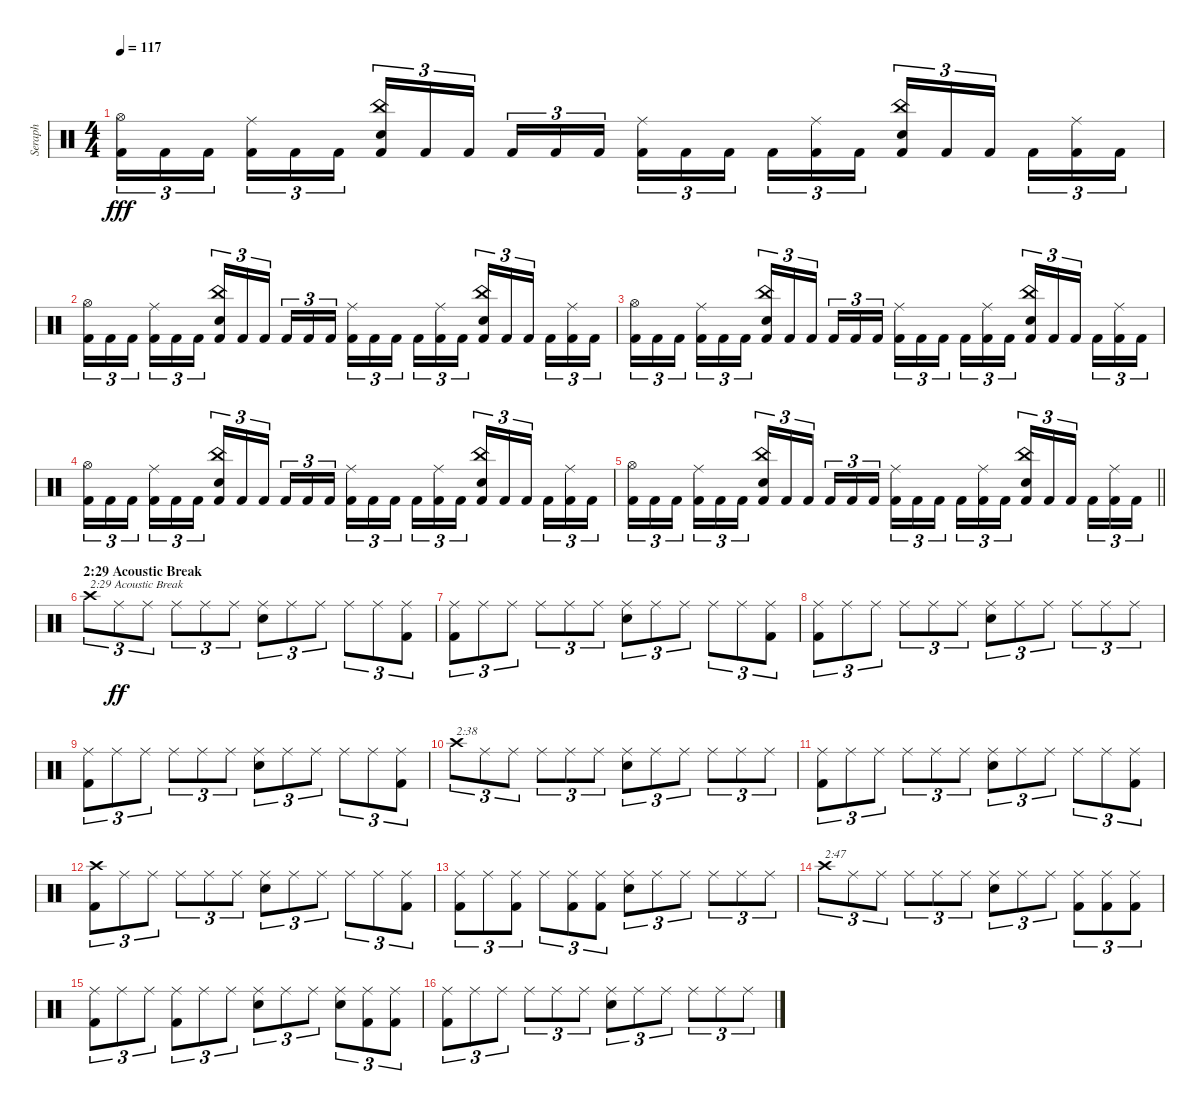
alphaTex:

\track ("Seraph" "Seraph") {instrument percussion}
\staff {score}
\articulation defaults
\ts (4 4)
\tempo 117
\clef neutral
\ks c
("Hi-Hat (open)" "Kick (hit) 2").16{tu (3 2) dy fff} "Kick (hit) 2".16{tu (3 2)} "Kick (hit) 2".16{tu (3 2) beam splitsecondary} ("Ride (middle)" "Kick (hit) 2").16{tu (3 2)} "Kick (hit) 2".16{tu (3 2)} "Kick (hit) 2".16{tu (3 2)} ("China (hit)" "Electric Snare (hit)" "Kick (hit) 2").16{tu (3 2)} "Kick (hit) 2".16{tu (3 2)} "Kick (hit) 2".16{tu (3 2) beam splitsecondary} "Kick (hit) 2".16{tu (3 2)} "Kick (hit) 2".16{tu (3 2)} "Kick (hit) 2".16{tu (3 2)} ("Ride (middle)" "Kick (hit) 2").16{tu (3 2)} "Kick (hit) 2".16{tu (3 2)} "Kick (hit) 2".16{tu (3 2) beam splitsecondary} "Kick (hit) 2".16{tu (3 2)} ("Ride (middle)" "Kick (hit) 2").16{tu (3 2)} "Kick (hit) 2".16{tu (3 2)} ("China (hit)" "Electric Snare (hit)" "Kick (hit) 2").16{tu (3 2)} "Kick (hit) 2".16{tu (3 2)} "Kick (hit) 2".16{tu (3 2) beam splitsecondary} "Kick (hit) 2".16{tu (3 2)} ("Ride (middle)" "Kick (hit) 2").16{tu (3 2)} "Kick (hit) 2".16{tu (3 2)} |
("Hi-Hat (open)" "Kick (hit) 2").16{tu (3 2)} "Kick (hit) 2".16{tu (3 2)} "Kick (hit) 2".16{tu (3 2) beam splitsecondary} ("Ride (middle)" "Kick (hit) 2").16{tu (3 2)} "Kick (hit) 2".16{tu (3 2)} "Kick (hit) 2".16{tu (3 2)} ("China (hit)" "Electric Snare (hit)" "Kick (hit) 2").16{tu (3 2)} "Kick (hit) 2".16{tu (3 2)} "Kick (hit) 2".16{tu (3 2) beam splitsecondary} "Kick (hit) 2".16{tu (3 2)} "Kick (hit) 2".16{tu (3 2)} "Kick (hit) 2".16{tu (3 2)} ("Ride (middle)" "Kick (hit) 2").16{tu (3 2)} "Kick (hit) 2".16{tu (3 2)} "Kick (hit) 2".16{tu (3 2) beam splitsecondary} "Kick (hit) 2".16{tu (3 2)} ("Ride (middle)" "Kick (hit) 2").16{tu (3 2)} "Kick (hit) 2".16{tu (3 2)} ("China (hit)" "Electric Snare (hit)" "Kick (hit) 2").16{tu (3 2)} "Kick (hit) 2".16{tu (3 2)} "Kick (hit) 2".16{tu (3 2) beam splitsecondary} "Kick (hit) 2".16{tu (3 2)} ("Ride (middle)" "Kick (hit) 2").16{tu (3 2)} "Kick (hit) 2".16{tu (3 2)} |
("Hi-Hat (open)" "Kick (hit) 2").16{tu (3 2)} "Kick (hit) 2".16{tu (3 2)} "Kick (hit) 2".16{tu (3 2) beam splitsecondary} ("Ride (middle)" "Kick (hit) 2").16{tu (3 2)} "Kick (hit) 2".16{tu (3 2)} "Kick (hit) 2".16{tu (3 2)} ("China (hit)" "Electric Snare (hit)" "Kick (hit) 2").16{tu (3 2)} "Kick (hit) 2".16{tu (3 2)} "Kick (hit) 2".16{tu (3 2) beam splitsecondary} "Kick (hit) 2".16{tu (3 2)} "Kick (hit) 2".16{tu (3 2)} "Kick (hit) 2".16{tu (3 2)} ("Ride (middle)" "Kick (hit) 2").16{tu (3 2)} "Kick (hit) 2".16{tu (3 2)} "Kick (hit) 2".16{tu (3 2) beam splitsecondary} "Kick (hit) 2".16{tu (3 2)} ("Ride (middle)" "Kick (hit) 2").16{tu (3 2)} "Kick (hit) 2".16{tu (3 2)} ("China (hit)" "Electric Snare (hit)" "Kick (hit) 2").16{tu (3 2)} "Kick (hit) 2".16{tu (3 2)} "Kick (hit) 2".16{tu (3 2) beam splitsecondary} "Kick (hit) 2".16{tu (3 2)} ("Ride (middle)" "Kick (hit) 2").16{tu (3 2)} "Kick (hit) 2".16{tu (3 2)} |
("Hi-Hat (open)" "Kick (hit) 2").16{tu (3 2)} "Kick (hit) 2".16{tu (3 2)} "Kick (hit) 2".16{tu (3 2) beam splitsecondary} ("Ride (middle)" "Kick (hit) 2").16{tu (3 2)} "Kick (hit) 2".16{tu (3 2)} "Kick (hit) 2".16{tu (3 2)} ("China (hit)" "Electric Snare (hit)" "Kick (hit) 2").16{tu (3 2)} "Kick (hit) 2".16{tu (3 2)} "Kick (hit) 2".16{tu (3 2) beam splitsecondary} "Kick (hit) 2".16{tu (3 2)} "Kick (hit) 2".16{tu (3 2)} "Kick (hit) 2".16{tu (3 2)} ("Ride (middle)" "Kick (hit) 2").16{tu (3 2)} "Kick (hit) 2".16{tu (3 2)} "Kick (hit) 2".16{tu (3 2) beam splitsecondary} "Kick (hit) 2".16{tu (3 2)} ("Ride (middle)" "Kick (hit) 2").16{tu (3 2)} "Kick (hit) 2".16{tu (3 2)} ("China (hit)" "Electric Snare (hit)" "Kick (hit) 2").16{tu (3 2)} "Kick (hit) 2".16{tu (3 2)} "Kick (hit) 2".16{tu (3 2) beam splitsecondary} "Kick (hit) 2".16{tu (3 2)} ("Ride (middle)" "Kick (hit) 2").16{tu (3 2)} "Kick (hit) 2".16{tu (3 2)} |
\barLineRight lightlight
("Hi-Hat (open)" "Kick (hit) 2").16{tu (3 2)} "Kick (hit) 2".16{tu (3 2)} "Kick (hit) 2".16{tu (3 2) beam splitsecondary} ("Ride (middle)" "Kick (hit) 2").16{tu (3 2)} "Kick (hit) 2".16{tu (3 2)} "Kick (hit) 2".16{tu (3 2)} ("China (hit)" "Electric Snare (hit)" "Kick (hit) 2").16{tu (3 2)} "Kick (hit) 2".16{tu (3 2)} "Kick (hit) 2".16{tu (3 2) beam splitsecondary} "Kick (hit) 2".16{tu (3 2)} "Kick (hit) 2".16{tu (3 2)} "Kick (hit) 2".16{tu (3 2)} ("Ride (middle)" "Kick (hit) 2").16{tu (3 2)} "Kick (hit) 2".16{tu (3 2)} "Kick (hit) 2".16{tu (3 2) beam splitsecondary} "Kick (hit) 2".16{tu (3 2)} ("Ride (middle)" "Kick (hit) 2").16{tu (3 2)} "Kick (hit) 2".16{tu (3 2)} ("China (hit)" "Electric Snare (hit)" "Kick (hit) 2").16{tu (3 2)} "Kick (hit) 2".16{tu (3 2)} "Kick (hit) 2".16{tu (3 2) beam splitsecondary} "Kick (hit) 2".16{tu (3 2)} ("Ride (middle)" "Kick (hit) 2").16{tu (3 2)} "Kick (hit) 2".16{tu (3 2)} |
\section ("" "2:29 Acoustic Break")
"Crash high (hit)".8{tu (3 2) txt "2:29 Acoustic Break"} "Ride (middle)".8{tu (3 2) dy ff} "Ride (middle)".8{tu (3 2)} "Ride (middle)".8{tu (3 2)} "Ride (middle)".8{tu (3 2)} "Ride (middle)".8{tu (3 2)} ("Electric Snare (hit)" "Ride (middle)").8{tu (3 2)} "Ride (middle)".8{tu (3 2)} "Ride (middle)".8{tu (3 2)} "Ride (middle)".8{tu (3 2)} "Ride (middle)".8{tu (3 2)} ("Kick (hit) 2" "Ride (middle)").8{tu (3 2)} |
("Kick (hit) 2" "Ride (middle)").8{tu (3 2)} "Ride (middle)".8{tu (3 2)} "Ride (middle)".8{tu (3 2)} "Ride (middle)".8{tu (3 2)} "Ride (middle)".8{tu (3 2)} "Ride (middle)".8{tu (3 2)} ("Electric Snare (hit)" "Ride (middle)").8{tu (3 2)} "Ride (middle)".8{tu (3 2)} "Ride (middle)".8{tu (3 2)} "Ride (middle)".8{tu (3 2)} "Ride (middle)".8{tu (3 2)} ("Kick (hit) 2" "Ride (middle)").8{tu (3 2)} |
("Kick (hit) 2" "Ride (middle)").8{tu (3 2)} "Ride (middle)".8{tu (3 2)} "Ride (middle)".8{tu (3 2)} "Ride (middle)".8{tu (3 2)} "Ride (middle)".8{tu (3 2)} "Ride (middle)".8{tu (3 2)} ("Electric Snare (hit)" "Ride (middle)").8{tu (3 2)} "Ride (middle)".8{tu (3 2)} "Ride (middle)".8{tu (3 2)} "Ride (middle)".8{tu (3 2)} "Ride (middle)".8{tu (3 2)} "Ride (middle)".8{tu (3 2)} |
("Kick (hit) 2" "Ride (middle)").8{tu (3 2)} "Ride (middle)".8{tu (3 2)} "Ride (middle)".8{tu (3 2)} "Ride (middle)".8{tu (3 2)} "Ride (middle)".8{tu (3 2)} "Ride (middle)".8{tu (3 2)} ("Electric Snare (hit)" "Ride (middle)").8{tu (3 2)} "Ride (middle)".8{tu (3 2)} "Ride (middle)".8{tu (3 2)} "Ride (middle)".8{tu (3 2)} "Ride (middle)".8{tu (3 2)} ("Kick (hit) 2" "Ride (middle)").8{tu (3 2)} |
"Crash high (hit)".8{tu (3 2) txt "2:38"} "Ride (middle)".8{tu (3 2)} "Ride (middle)".8{tu (3 2)} "Ride (middle)".8{tu (3 2)} "Ride (middle)".8{tu (3 2)} "Ride (middle)".8{tu (3 2)} ("Electric Snare (hit)" "Ride (middle)").8{tu (3 2)} "Ride (middle)".8{tu (3 2)} "Ride (middle)".8{tu (3 2)} "Ride (middle)".8{tu (3 2)} "Ride (middle)".8{tu (3 2)} "Ride (middle)".8{tu (3 2)} |
("Kick (hit) 2" "Ride (middle)").8{tu (3 2)} "Ride (middle)".8{tu (3 2)} "Ride (middle)".8{tu (3 2)} "Ride (middle)".8{tu (3 2)} "Ride (middle)".8{tu (3 2)} "Ride (middle)".8{tu (3 2)} ("Electric Snare (hit)" "Ride (middle)").8{tu (3 2)} "Ride (middle)".8{tu (3 2)} "Ride (middle)".8{tu (3 2)} "Ride (middle)".8{tu (3 2)} "Ride (middle)".8{tu (3 2)} ("Kick (hit) 2" "Ride (middle)").8{tu (3 2)} |
("Kick (hit) 2" "Crash high (hit)").8{tu (3 2)} "Ride (middle)".8{tu (3 2)} "Ride (middle)".8{tu (3 2)} "Ride (middle)".8{tu (3 2)} "Ride (middle)".8{tu (3 2)} "Ride (middle)".8{tu (3 2)} ("Electric Snare (hit)" "Ride (middle)").8{tu (3 2)} "Ride (middle)".8{tu (3 2)} "Ride (middle)".8{tu (3 2)} "Ride (middle)".8{tu (3 2)} "Ride (middle)".8{tu (3 2)} ("Kick (hit) 2" "Ride (middle)").8{tu (3 2)} |
("Kick (hit) 2" "Ride (middle)").8{tu (3 2)} "Ride (middle)".8{tu (3 2)} ("Kick (hit) 2" "Ride (middle)").8{tu (3 2)} "Ride (middle)".8{tu (3 2)} ("Kick (hit) 2" "Ride (middle)").8{tu (3 2)} ("Kick (hit) 2" "Ride (middle)").8{tu (3 2)} ("Electric Snare (hit)" "Ride (middle)").8{tu (3 2)} "Ride (middle)".8{tu (3 2)} "Ride (middle)".8{tu (3 2)} "Ride (middle)".8{tu (3 2)} "Ride (middle)".8{tu (3 2)} "Ride (middle)".8{tu (3 2)} |
"Crash high (hit)".8{tu (3 2) txt "2:47"} "Ride (middle)".8{tu (3 2)} "Ride (middle)".8{tu (3 2)} "Ride (middle)".8{tu (3 2)} "Ride (middle)".8{tu (3 2)} "Ride (middle)".8{tu (3 2)} ("Electric Snare (hit)" "Ride (middle)").8{tu (3 2)} "Ride (middle)".8{tu (3 2)} "Ride (middle)".8{tu (3 2)} ("Kick (hit) 2" "Ride (middle)").8{tu (3 2)} ("Kick (hit) 2" "Ride (middle)").8{tu (3 2)} ("Kick (hit) 2" "Ride (middle)").8{tu (3 2)} |
("Kick (hit) 2" "Ride (middle)").8{tu (3 2)} "Ride (middle)".8{tu (3 2)} "Ride (middle)".8{tu (3 2)} ("Kick (hit) 2" "Ride (middle)").8{tu (3 2)} "Ride (middle)".8{tu (3 2)} "Ride (middle)".8{tu (3 2)} ("Electric Snare (hit)" "Ride (middle)").8{tu (3 2)} "Ride (middle)".8{tu (3 2)} "Ride (middle)".8{tu (3 2)} ("Electric Snare (hit)" "Ride (middle)").8{tu (3 2)} ("Kick (hit) 2" "Ride (middle)").8{tu (3 2)} ("Kick (hit) 2" "Ride (middle)").8{tu (3 2)} |
("Kick (hit) 2" "Ride (middle)").8{tu (3 2)} "Ride (middle)".8{tu (3 2)} "Ride (middle)".8{tu (3 2)} "Ride (middle)".8{tu (3 2)} "Ride (middle)".8{tu (3 2)} "Ride (middle)".8{tu (3 2)} ("Electric Snare (hit)" "Ride (middle)").8{tu (3 2)} "Ride (middle)".8{tu (3 2)} "Ride (middle)".8{tu (3 2)} "Ride (middle)".8{tu (3 2)} "Ride (middle)".8{tu (3 2)} "Ride (middle)".8{tu (3 2)}
